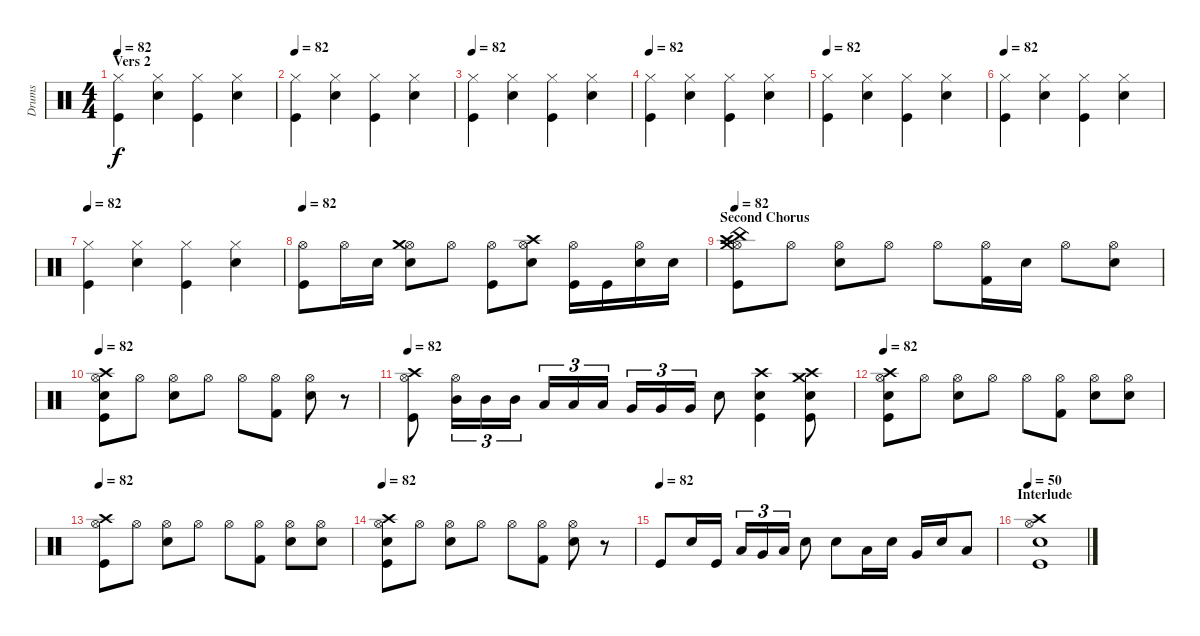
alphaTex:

\track ("Drums" "Drums") {instrument percussion}
\staff {score}
\articulation defaults
\ts (4 4)
\section ("" "Vers 2")
\tempo 82
\clef neutral
\ks c
("Hi-Hat (closed)" "Kick (hit)").4{dy f} ("Hi-Hat (closed)" "Snare (hit) 2").4 ("Hi-Hat (closed)" "Kick (hit)").4 ("Hi-Hat (closed)" "Snare (hit) 2").4 |
\tempo 82
("Hi-Hat (closed)" "Kick (hit)").4 ("Hi-Hat (closed)" "Snare (hit) 2").4 ("Hi-Hat (closed)" "Kick (hit)").4 ("Hi-Hat (closed)" "Snare (hit) 2").4 |
\tempo 82
("Hi-Hat (closed)" "Kick (hit)").4 ("Hi-Hat (closed)" "Snare (hit) 2").4 ("Hi-Hat (closed)" "Kick (hit)").4 ("Hi-Hat (closed)" "Snare (hit) 2").4 |
\tempo 82
("Hi-Hat (closed)" "Kick (hit)").4 ("Hi-Hat (closed)" "Snare (hit) 2").4 ("Hi-Hat (closed)" "Kick (hit)").4 ("Hi-Hat (closed)" "Snare (hit) 2").4 |
\tempo 82
("Hi-Hat (closed)" "Kick (hit)").4 ("Hi-Hat (closed)" "Snare (hit) 2").4 ("Hi-Hat (closed)" "Kick (hit)").4 ("Hi-Hat (closed)" "Snare (hit) 2").4 |
\tempo 82
("Hi-Hat (closed)" "Kick (hit)").4 ("Hi-Hat (closed)" "Snare (hit) 2").4 ("Hi-Hat (closed)" "Kick (hit)").4 ("Hi-Hat (closed)" "Snare (hit) 2").4 |
\tempo 82
("Hi-Hat (closed)" "Kick (hit)").4 ("Hi-Hat (closed)" "Snare (hit) 2").4 ("Hi-Hat (closed)" "Kick (hit)").4 ("Hi-Hat (closed)" "Snare (hit) 2").4 |
\tempo 82
("Hi-Hat (open)" "Kick (hit)").8 "Hi-Hat (open)".16 "Snare (hit) 2".16 ("Hi-Hat (open)" "Crash medium (hit)" "Snare (hit) 2").8 "Hi-Hat (open)".8 ("Hi-Hat (open)" "Kick (hit)").8 ("Hi-Hat (open)" "Crash high (hit)" "Snare (hit) 2").8 ("Hi-Hat (open)" "Kick (hit)").16 "Kick (hit)".16 ("Hi-Hat (open)" "Snare (hit) 2").16 "Snare (hit) 2".16 |
\section ("" "Second Chorus")
\tempo 82
("Hi-Hat (open)" "Crash high (hit)" "Crash medium (hit)" "China (hit)" "Kick (hit)").8 "Hi-Hat (open)".8 ("Hi-Hat (open)" "Snare (hit) 2").8 "Hi-Hat (open)".8 "Hi-Hat (open)".8 ("Hi-Hat (open)" "Kick (hit) 2").16 "Snare (hit) 2".16 "Hi-Hat (open)".8 ("Hi-Hat (open)" "Snare (hit) 2").8 |
\tempo 82
("Hi-Hat (open)" "Crash high (hit)" "Snare (hit) 2" "Kick (hit)").8 "Hi-Hat (open)".8 ("Hi-Hat (open)" "Snare (hit) 2").8 "Hi-Hat (open)".8 "Hi-Hat (open)".8 ("Hi-Hat (open)" "Kick (hit) 2").8 ("Hi-Hat (open)" "Snare (hit) 2").8 r.8 |
\tempo 82
("Hi-Hat (open)" "Crash high (hit)" "Kick (hit)").8 ("Hi-Hat (open)" "Mid Tom (hit)").16{tu (3 2)} "Mid Tom (hit)".16{tu (3 2)} "Mid Tom (hit)".16{tu (3 2)} "Low Tom (hit)".16{tu (3 2)} "Low Tom (hit)".16{tu (3 2)} "Low Tom (hit)".16{tu (3 2)} "Very Low Tom (hit)".16{tu (3 2)} "Very Low Tom (hit)".16{tu (3 2)} "Very Low Tom (hit)".16{tu (3 2)} "Snare (hit) 2".8 ("Crash high (hit)" "Snare (hit) 2" "Kick (hit)").4 ("Crash medium (hit)" "Crash high (hit)" "Snare (hit) 2" "Kick (hit)").8 |
\tempo 82
("Hi-Hat (open)" "Crash high (hit)" "Snare (hit) 2" "Kick (hit)").8 "Hi-Hat (open)".8 ("Hi-Hat (open)" "Snare (hit) 2").8 "Hi-Hat (open)".8 "Hi-Hat (open)".8 ("Hi-Hat (open)" "Kick (hit) 2").8 ("Hi-Hat (open)" "Snare (hit) 2").8 ("Hi-Hat (open)" "Snare (hit) 2").8 |
\tempo 82
("Hi-Hat (open)" "Crash high (hit)" "Kick (hit)").8 "Hi-Hat (open)".8 ("Hi-Hat (open)" "Snare (hit) 2").8 "Hi-Hat (open)".8 "Hi-Hat (open)".8 ("Hi-Hat (open)" "Kick (hit) 2").8 ("Hi-Hat (open)" "Snare (hit) 2").8 ("Hi-Hat (open)" "Snare (hit) 2").8 |
\tempo 82
("Hi-Hat (open)" "Crash high (hit)" "Snare (hit) 2" "Kick (hit)").8 "Hi-Hat (open)".8 ("Hi-Hat (open)" "Snare (hit) 2").8 "Hi-Hat (open)".8 "Hi-Hat (open)".8 ("Hi-Hat (open)" "Kick (hit) 2").8 ("Hi-Hat (open)" "Snare (hit) 2").8 r.8 |
\tempo (82)
"Kick (hit)".8 "Snare (hit) 2".16 "Kick (hit)".16 "Low Tom (hit)".16{tu (3 2)} "Very Low Tom (hit)".16{tu (3 2)} "Low Floor Tom (hit)".16{tu (3 2)} "Snare (hit) 2".8 "Snare (hit) 2".8 "Low Tom (hit)".16 "Snare (hit) 2".16 "Very Low Tom (hit)".16 "Snare (hit) 2".16 "Low Floor Tom (hit)".8 |
\section ("" "Interlude")
\tempo 50
("Hi-Hat (open)" "Crash high (hit)" "Snare (hit) 2" "Kick (hit)").1
